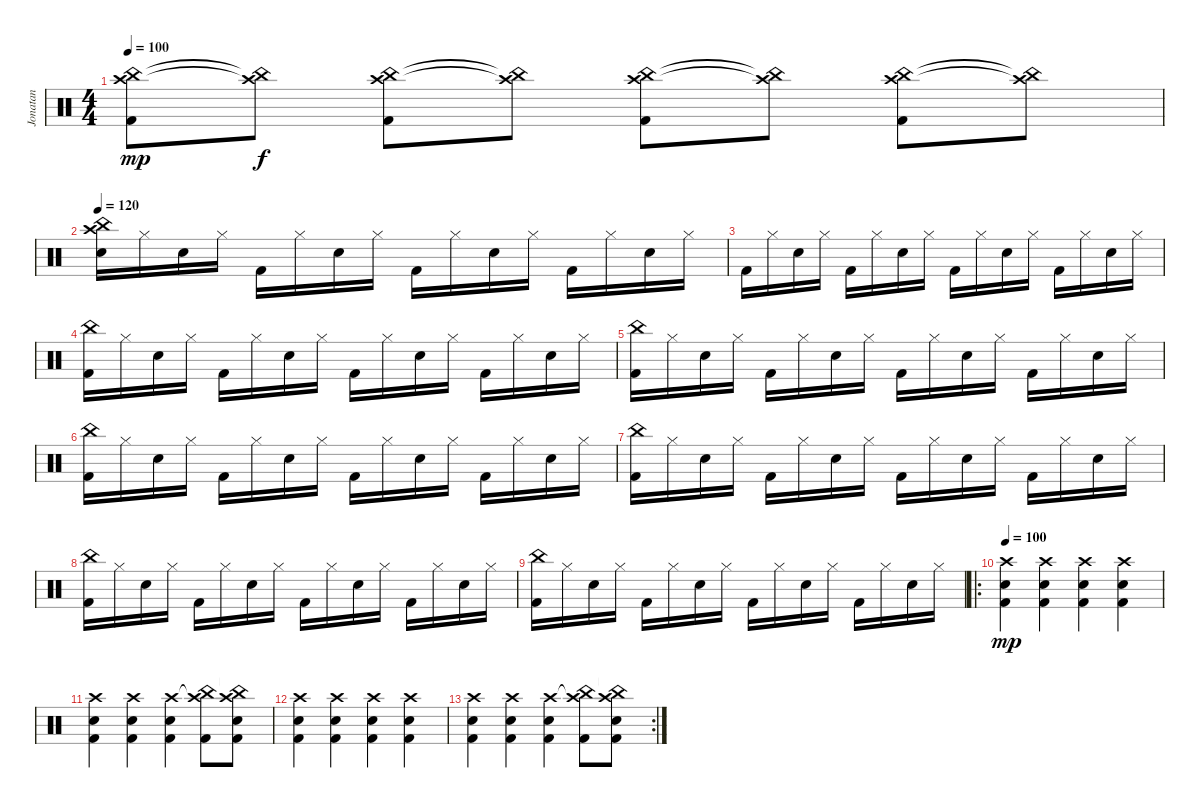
\track ("Jonatan" "Jonatan") {instrument percussion}
\staff {score}
\articulation defaults
\ts (4 4)
\tempo 100
\clef neutral
\ks c
("Crash high (hit)" "China (hit)" "Kick (hit) 2").8{dy mp} ("Crash high (hit)"{t} "China (hit)"{t}).8{dy f} ("Crash high (hit)" "China (hit)" "Kick (hit) 2").8 ("Crash high (hit)"{t} "China (hit)"{t}).8 ("Crash high (hit)" "China (hit)" "Kick (hit) 2").8 ("Crash high (hit)"{t} "China (hit)"{t}).8 ("Crash high (hit)" "China (hit)" "Kick (hit) 2").8 ("Crash high (hit)"{t} "China (hit)"{t}).8 |
\tempo 120
("Crash high (hit)" "China (hit)" "Electric Snare (hit)").16 "Hi-Hat (closed)".16 "Electric Snare (hit)".16 "Hi-Hat (closed)".16 "Kick (hit) 2".16 "Hi-Hat (closed)".16 "Electric Snare (hit)".16 "Hi-Hat (closed)".16 "Kick (hit) 2".16 "Hi-Hat (closed)".16 "Electric Snare (hit)".16 "Hi-Hat (closed)".16 "Kick (hit) 2".16 "Hi-Hat (closed)".16 "Electric Snare (hit)".16 "Hi-Hat (closed)".16 |
"Kick (hit) 2".16 "Hi-Hat (closed)".16 "Electric Snare (hit)".16 "Hi-Hat (closed)".16 "Kick (hit) 2".16 "Hi-Hat (closed)".16 "Electric Snare (hit)".16 "Hi-Hat (closed)".16 "Kick (hit) 2".16 "Hi-Hat (closed)".16 "Electric Snare (hit)".16 "Hi-Hat (closed)".16 "Kick (hit) 2".16 "Hi-Hat (closed)".16 "Electric Snare (hit)".16 "Hi-Hat (closed)".16 |
("China (hit)" "Kick (hit) 2").16 "Hi-Hat (closed)".16 "Electric Snare (hit)".16 "Hi-Hat (closed)".16 "Kick (hit) 2".16 "Hi-Hat (closed)".16 "Electric Snare (hit)".16 "Hi-Hat (closed)".16 "Kick (hit) 2".16 "Hi-Hat (closed)".16 "Electric Snare (hit)".16 "Hi-Hat (closed)".16 "Kick (hit) 2".16 "Hi-Hat (closed)".16 "Electric Snare (hit)".16 "Hi-Hat (closed)".16 |
("China (hit)" "Kick (hit) 2").16 "Hi-Hat (closed)".16 "Electric Snare (hit)".16 "Hi-Hat (closed)".16 "Kick (hit) 2".16 "Hi-Hat (closed)".16 "Electric Snare (hit)".16 "Hi-Hat (closed)".16 "Kick (hit) 2".16 "Hi-Hat (closed)".16 "Electric Snare (hit)".16 "Hi-Hat (closed)".16 "Kick (hit) 2".16 "Hi-Hat (closed)".16 "Electric Snare (hit)".16 "Hi-Hat (closed)".16 |
("China (hit)" "Kick (hit) 2").16 "Hi-Hat (closed)".16 "Electric Snare (hit)".16 "Hi-Hat (closed)".16 "Kick (hit) 2".16 "Hi-Hat (closed)".16 "Electric Snare (hit)".16 "Hi-Hat (closed)".16 "Kick (hit) 2".16 "Hi-Hat (closed)".16 "Electric Snare (hit)".16 "Hi-Hat (closed)".16 "Kick (hit) 2".16 "Hi-Hat (closed)".16 "Electric Snare (hit)".16 "Hi-Hat (closed)".16 |
("China (hit)" "Kick (hit) 2").16 "Hi-Hat (closed)".16 "Electric Snare (hit)".16 "Hi-Hat (closed)".16 "Kick (hit) 2".16 "Hi-Hat (closed)".16 "Electric Snare (hit)".16 "Hi-Hat (closed)".16 "Kick (hit) 2".16 "Hi-Hat (closed)".16 "Electric Snare (hit)".16 "Hi-Hat (closed)".16 "Kick (hit) 2".16 "Hi-Hat (closed)".16 "Electric Snare (hit)".16 "Hi-Hat (closed)".16 |
("China (hit)" "Kick (hit) 2").16 "Hi-Hat (closed)".16 "Electric Snare (hit)".16 "Hi-Hat (closed)".16 "Kick (hit) 2".16 "Hi-Hat (closed)".16 "Electric Snare (hit)".16 "Hi-Hat (closed)".16 "Kick (hit) 2".16 "Hi-Hat (closed)".16 "Electric Snare (hit)".16 "Hi-Hat (closed)".16 "Kick (hit) 2".16 "Hi-Hat (closed)".16 "Electric Snare (hit)".16 "Hi-Hat (closed)".16 |
("China (hit)" "Kick (hit) 2").16 "Hi-Hat (closed)".16 "Electric Snare (hit)".16 "Hi-Hat (closed)".16 "Kick (hit) 2".16 "Hi-Hat (closed)".16 "Electric Snare (hit)".16 "Hi-Hat (closed)".16 "Kick (hit) 2".16 "Hi-Hat (closed)".16 "Electric Snare (hit)".16 "Hi-Hat (closed)".16 "Kick (hit) 2".16 "Hi-Hat (closed)".16 "Electric Snare (hit)".16 "Hi-Hat (closed)".16 |
\ro
\tempo 100
("Crash high (hit)" "Electric Snare (hit)" "Kick (hit) 2").4{dy mp} ("Crash high (hit)" "Electric Snare (hit)" "Kick (hit) 2").4 ("Crash high (hit)" "Electric Snare (hit)" "Kick (hit) 2").4 ("Crash high (hit)" "Electric Snare (hit)" "Kick (hit) 2").4 |
("Crash high (hit)" "Electric Snare (hit)" "Kick (hit) 2").4 ("Crash high (hit)" "Electric Snare (hit)" "Kick (hit) 2").4 ("Crash high (hit)" "Electric Snare (hit)" "Kick (hit) 2").4 ("Crash high (hit)"{t} "China (hit)" "Kick (hit) 2").8 ("Crash high (hit)" "China (hit)"{t} "Electric Snare (hit)" "Kick (hit) 2").8 |
("Crash high (hit)" "Electric Snare (hit)" "Kick (hit) 2").4 ("Crash high (hit)" "Electric Snare (hit)" "Kick (hit) 2").4 ("Crash high (hit)" "Electric Snare (hit)" "Kick (hit) 2").4 ("Crash high (hit)" "Electric Snare (hit)" "Kick (hit) 2").4 |
\rc 2
("Crash high (hit)" "Electric Snare (hit)" "Kick (hit) 2").4 ("Crash high (hit)" "Electric Snare (hit)" "Kick (hit) 2").4 ("Crash high (hit)" "Electric Snare (hit)" "Kick (hit) 2").4 ("Crash high (hit)"{t} "China (hit)" "Kick (hit) 2").8 ("Crash high (hit)" "China (hit)"{t} "Electric Snare (hit)" "Kick (hit) 2").8
